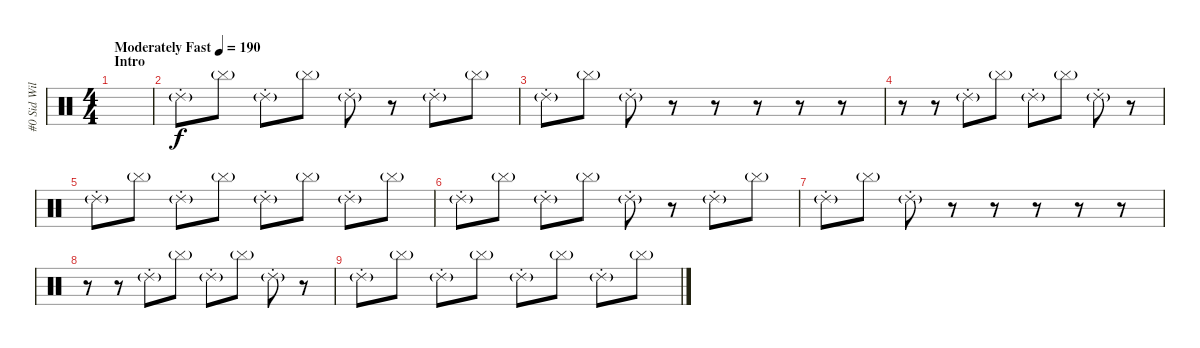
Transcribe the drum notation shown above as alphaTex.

\track ("#0 Sid Wilson" "#0 Sid Wil") {instrument percussion}
\staff {score}
\articulation defaults
\ts (4 4)
\section ("" "Intro")
\tempo (190 "Moderately Fast")
\clef neutral
\ks c
|
"Ride (choke) 2"{g}.8 "Cymbal (hit)"{g}.8 "Ride (choke) 2"{g}.8 "Cymbal (hit)"{g}.8 "Ride (choke) 2"{g}.8 r.8 "Ride (choke) 2"{g}.8 "Cymbal (hit)"{g}.8 |
"Ride (choke) 2"{g}.8 "Cymbal (hit)"{g}.8 "Ride (choke) 2"{g}.8 r.8 r.8 r.8 r.8 r.8 |
r.8 r.8 "Ride (choke) 2"{g}.8 "Cymbal (hit)"{g}.8 "Ride (choke) 2"{g}.8 "Cymbal (hit)"{g}.8 "Ride (choke) 2"{g}.8 r.8 |
"Ride (choke) 2"{g}.8 "Cymbal (hit)"{g}.8 "Ride (choke) 2"{g}.8 "Cymbal (hit)"{g}.8 "Ride (choke) 2"{g}.8 "Cymbal (hit)"{g}.8 "Ride (choke) 2"{g}.8 "Cymbal (hit)"{g}.8 |
"Ride (choke) 2"{g}.8 "Cymbal (hit)"{g}.8 "Ride (choke) 2"{g}.8 "Cymbal (hit)"{g}.8 "Ride (choke) 2"{g}.8 r.8 "Ride (choke) 2"{g}.8 "Cymbal (hit)"{g}.8 |
"Ride (choke) 2"{g}.8 "Cymbal (hit)"{g}.8 "Ride (choke) 2"{g}.8 r.8 r.8 r.8 r.8 r.8 |
r.8 r.8 "Ride (choke) 2"{g}.8 "Cymbal (hit)"{g}.8 "Ride (choke) 2"{g}.8 "Cymbal (hit)"{g}.8 "Ride (choke) 2"{g}.8 r.8 |
"Ride (choke) 2"{g}.8 "Cymbal (hit)"{g}.8 "Ride (choke) 2"{g}.8 "Cymbal (hit)"{g}.8 "Ride (choke) 2"{g}.8 "Cymbal (hit)"{g}.8 "Ride (choke) 2"{g}.8 "Cymbal (hit)"{g}.8
